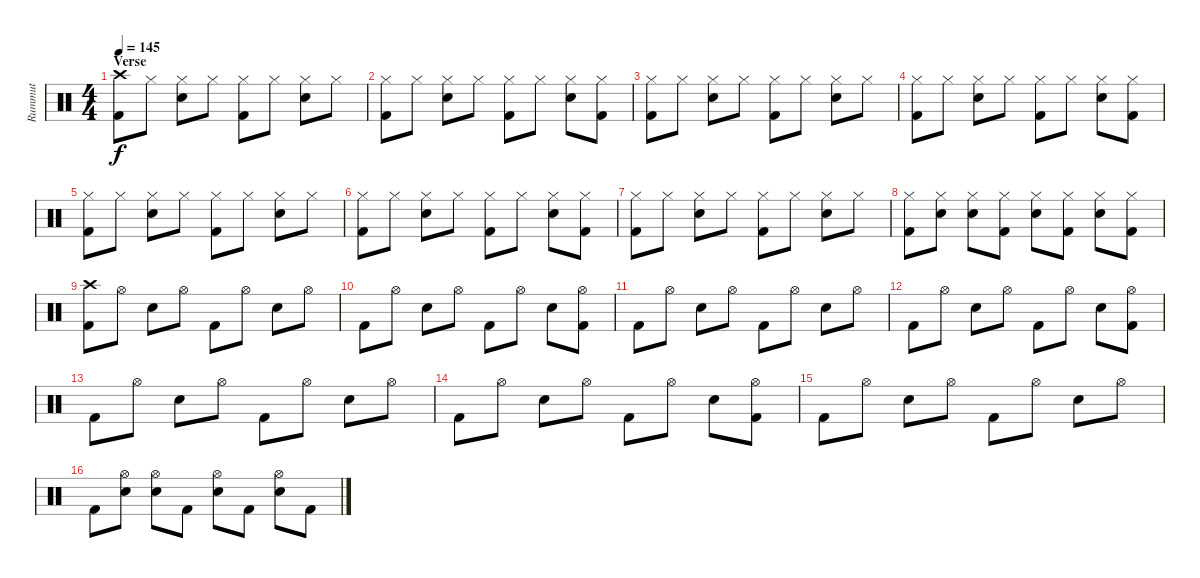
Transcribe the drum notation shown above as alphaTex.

\track ("Rummut" "Rummut") {instrument percussion}
\staff {score}
\articulation defaults
\ts (4 4)
\section ("" "Verse")
\tempo 145
\clef neutral
\ks c
("Crash high (hit)" "Kick (hit) 2").8{dy f} "Hi-Hat (closed)".8 ("Hi-Hat (closed)" "Snare (hit) 2").8 "Hi-Hat (closed)".8 ("Hi-Hat (closed)" "Kick (hit) 2").8 "Hi-Hat (closed)".8 ("Hi-Hat (closed)" "Snare (hit) 2").8 "Hi-Hat (closed)".8 |
("Hi-Hat (closed)" "Kick (hit) 2").8 "Hi-Hat (closed)".8 ("Hi-Hat (closed)" "Snare (hit) 2").8 "Hi-Hat (closed)".8 ("Hi-Hat (closed)" "Kick (hit) 2").8 "Hi-Hat (closed)".8 ("Hi-Hat (closed)" "Snare (hit) 2").8 ("Hi-Hat (closed)" "Kick (hit) 2").8 |
("Hi-Hat (closed)" "Kick (hit) 2").8 "Hi-Hat (closed)".8 ("Hi-Hat (closed)" "Snare (hit) 2").8 "Hi-Hat (closed)".8 ("Hi-Hat (closed)" "Kick (hit) 2").8 "Hi-Hat (closed)".8 ("Hi-Hat (closed)" "Snare (hit) 2").8 "Hi-Hat (closed)".8 |
("Hi-Hat (closed)" "Kick (hit) 2").8 "Hi-Hat (closed)".8 ("Hi-Hat (closed)" "Snare (hit) 2").8 "Hi-Hat (closed)".8 ("Hi-Hat (closed)" "Kick (hit) 2").8 "Hi-Hat (closed)".8 ("Hi-Hat (closed)" "Snare (hit) 2").8 ("Hi-Hat (closed)" "Kick (hit) 2").8 |
("Hi-Hat (closed)" "Kick (hit) 2").8 "Hi-Hat (closed)".8 ("Hi-Hat (closed)" "Snare (hit) 2").8 "Hi-Hat (closed)".8 ("Hi-Hat (closed)" "Kick (hit) 2").8 "Hi-Hat (closed)".8 ("Hi-Hat (closed)" "Snare (hit) 2").8 "Hi-Hat (closed)".8 |
("Hi-Hat (closed)" "Kick (hit) 2").8 "Hi-Hat (closed)".8 ("Hi-Hat (closed)" "Snare (hit) 2").8 "Hi-Hat (closed)".8 ("Hi-Hat (closed)" "Kick (hit) 2").8 "Hi-Hat (closed)".8 ("Hi-Hat (closed)" "Snare (hit) 2").8 ("Hi-Hat (closed)" "Kick (hit) 2").8 |
("Hi-Hat (closed)" "Kick (hit) 2").8 "Hi-Hat (closed)".8 ("Hi-Hat (closed)" "Snare (hit) 2").8 "Hi-Hat (closed)".8 ("Hi-Hat (closed)" "Kick (hit) 2").8 "Hi-Hat (closed)".8 ("Hi-Hat (closed)" "Snare (hit) 2").8 "Hi-Hat (closed)".8 |
("Hi-Hat (closed)" "Kick (hit) 2").8 ("Hi-Hat (closed)" "Snare (hit) 2").8 ("Hi-Hat (closed)" "Snare (hit) 2").8 ("Hi-Hat (closed)" "Kick (hit) 2").8 ("Hi-Hat (closed)" "Snare (hit) 2").8 ("Hi-Hat (closed)" "Kick (hit) 2").8 ("Hi-Hat (closed)" "Snare (hit) 2").8 ("Hi-Hat (closed)" "Kick (hit) 2").8 |
("Crash high (hit)" "Kick (hit) 2").8 "Hi-Hat (open)".8 "Snare (hit) 2".8 "Hi-Hat (open)".8 "Kick (hit) 2".8 "Hi-Hat (open)".8 "Snare (hit) 2".8 "Hi-Hat (open)".8 |
"Kick (hit) 2".8 "Hi-Hat (open)".8 "Snare (hit) 2".8 "Hi-Hat (open)".8 "Kick (hit) 2".8 "Hi-Hat (open)".8 "Snare (hit) 2".8 ("Hi-Hat (open)" "Kick (hit) 2").8 |
"Kick (hit) 2".8 "Hi-Hat (open)".8 "Snare (hit) 2".8 "Hi-Hat (open)".8 "Kick (hit) 2".8 "Hi-Hat (open)".8 "Snare (hit) 2".8 "Hi-Hat (open)".8 |
"Kick (hit) 2".8 "Hi-Hat (open)".8 "Snare (hit) 2".8 "Hi-Hat (open)".8 "Kick (hit) 2".8 "Hi-Hat (open)".8 "Snare (hit) 2".8 ("Hi-Hat (open)" "Kick (hit) 2").8 |
"Kick (hit) 2".8 "Hi-Hat (open)".8 "Snare (hit) 2".8 "Hi-Hat (open)".8 "Kick (hit) 2".8 "Hi-Hat (open)".8 "Snare (hit) 2".8 "Hi-Hat (open)".8 |
"Kick (hit) 2".8 "Hi-Hat (open)".8 "Snare (hit) 2".8 "Hi-Hat (open)".8 "Kick (hit) 2".8 "Hi-Hat (open)".8 "Snare (hit) 2".8 ("Hi-Hat (open)" "Kick (hit) 2").8 |
"Kick (hit) 2".8 "Hi-Hat (open)".8 "Snare (hit) 2".8 "Hi-Hat (open)".8 "Kick (hit) 2".8 "Hi-Hat (open)".8 "Snare (hit) 2".8 "Hi-Hat (open)".8 |
"Kick (hit) 2".8 ("Hi-Hat (open)" "Snare (hit) 2").8 ("Hi-Hat (open)" "Snare (hit) 2").8 "Kick (hit) 2".8 ("Hi-Hat (open)" "Snare (hit) 2").8 "Kick (hit) 2".8 ("Hi-Hat (open)" "Snare (hit) 2").8 "Kick (hit) 2".8
